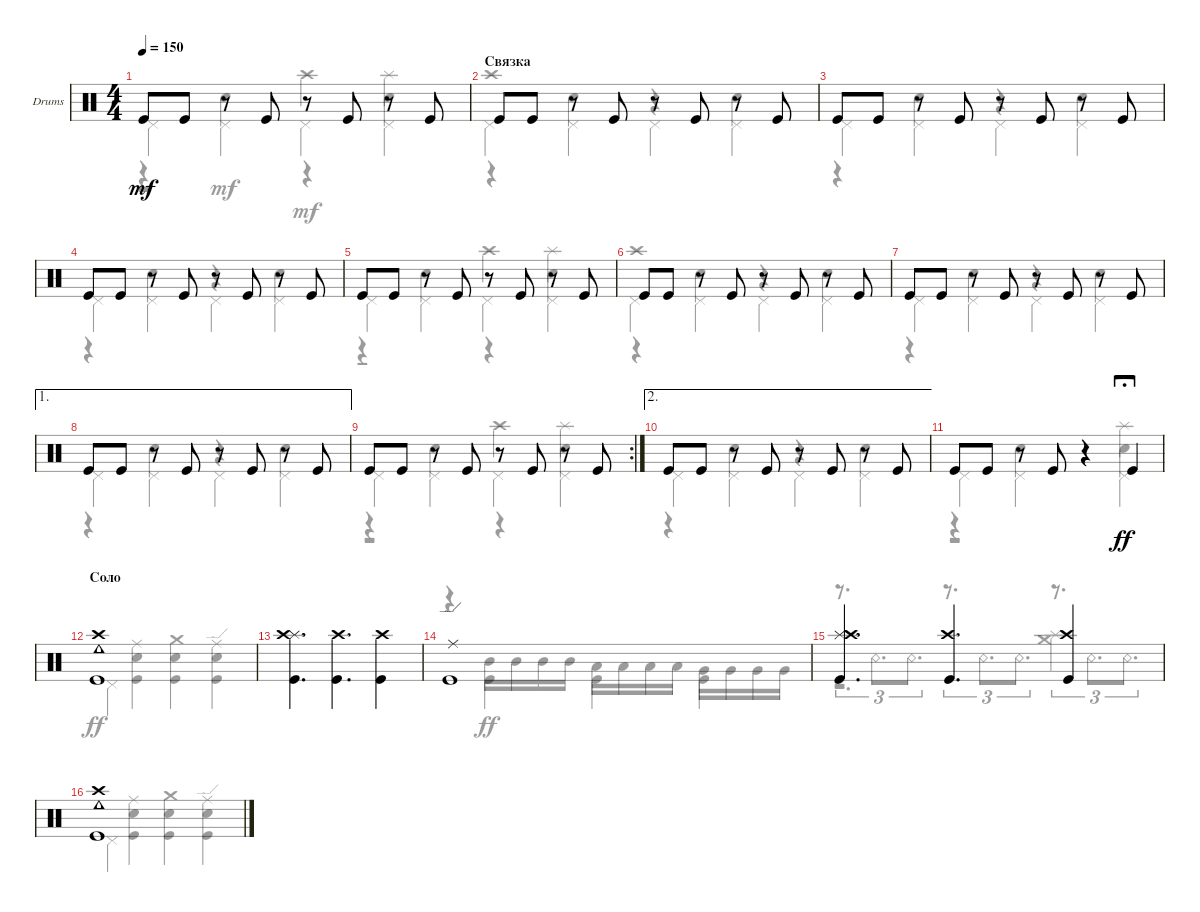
\defaultSystemsLayout 4
\bracketExtendMode groupsimilarinstruments
\firstSystemTrackNameOrientation horizontal
\otherSystemsTrackNameOrientation horizontal
\track ("Drumkit" "Drums") {instrument percussion}
\staff {score}
\articulation defaults
\voice
\ts (4 4)
\tempo 150
\clef neutral
\ks c "Kick (hit)".8{dy mf} "Kick (hit)".8
r.8 "Kick (hit)".8 r.8 "Kick (hit)".8 r.8 "Kick (hit)".8 |
\section ("" "Связка")
"Kick (hit)".8 "Kick (hit)".8 r.8 "Kick (hit)".8 r.8 "Kick (hit)".8 r.8 "Kick (hit)".8 |
"Kick (hit)".8 "Kick (hit)".8 r.8 "Kick (hit)".8 r.8 "Kick (hit)".8 r.8 "Kick (hit)".8 |
"Kick (hit)".8 "Kick (hit)".8 r.8 "Kick (hit)".8 r.8 "Kick (hit)".8 r.8 "Kick (hit)".8 |
"Kick (hit)".8 "Kick (hit)".8 r.8 "Kick (hit)".8 r.8 "Kick (hit)".8 r.8 "Kick (hit)".8 |
"Kick (hit)".8 "Kick (hit)".8 r.8 "Kick (hit)".8 r.8 "Kick (hit)".8 r.8 "Kick (hit)".8 |
"Kick (hit)".8 "Kick (hit)".8 r.8 "Kick (hit)".8 r.8 "Kick (hit)".8 r.8 "Kick (hit)".8 |
\ae 1 "Kick (hit)".8 "Kick (hit)".8
r.8 "Kick (hit)".8 r.8 "Kick (hit)".8 r.8 "Kick (hit)".8 |
\rc 2 "Kick (hit)".8 "Kick (hit)".8
r.8 "Kick (hit)".8 r.8 "Kick (hit)".8 r.8 "Kick (hit)".8 |
\ae 2 "Kick (hit)".8 "Kick (hit)".8
r.8 "Kick (hit)".8 r.8 "Kick (hit)".8 r.8 "Kick (hit)".8 |
"Kick (hit)".8 "Kick (hit)".8 r.8 "Kick (hit)".8 r.4 "Kick (hit)".4{dy ff fermata (long 1)} |
\section ("" "Соло")
("Cowbell low (hit)" "Kick (hit)" "Crash high (hit)").1 |
("Kick (hit)" "Splash (hit)" "Crash high (hit)").4{d} ("Crash high (hit)" "Kick (hit)").4{d} ("Kick (hit)" "Crash high (hit)").4 |
("Ride (edge)" "Kick (hit)").1 |
("Kick (hit)" "Splash (hit)" "Crash high (hit)").4{d} ("Crash high (hit)" "Kick (hit)").4{d} ("Kick (hit)" "Crash high (hit)").4 |
("Cowbell low (hit)" "Kick (hit)" "Crash high (hit)").1
\voice
\clef neutral
\ottava regular
\simile none
\ks c "Pedal Hi-Hat (hit)".4{dy mf} "Pedal Hi-Hat (hit)".4 "Pedal Hi-Hat (hit)".4 "Pedal Hi-Hat (hit)".4
|
"Pedal Hi-Hat (hit)".4 "Pedal Hi-Hat (hit)".4 "Pedal Hi-Hat (hit)".4 "Pedal Hi-Hat (hit)".4 |
"Pedal Hi-Hat (hit)".4 "Pedal Hi-Hat (hit)".4 "Pedal Hi-Hat (hit)".4 "Pedal Hi-Hat (hit)".4 |
"Pedal Hi-Hat (hit)".4 "Pedal Hi-Hat (hit)".4 "Pedal Hi-Hat (hit)".4 "Pedal Hi-Hat (hit)".4 |
"Pedal Hi-Hat (hit)".4 "Pedal Hi-Hat (hit)".4 "Pedal Hi-Hat (hit)".4 "Pedal Hi-Hat (hit)".4 |
"Pedal Hi-Hat (hit)".4 "Pedal Hi-Hat (hit)".4 "Pedal Hi-Hat (hit)".4 "Pedal Hi-Hat (hit)".4 |
"Pedal Hi-Hat (hit)".4 "Pedal Hi-Hat (hit)".4 "Pedal Hi-Hat (hit)".4 "Pedal Hi-Hat (hit)".4 |
"Pedal Hi-Hat (hit)".4 "Pedal Hi-Hat (hit)".4 "Pedal Hi-Hat (hit)".4 "Pedal Hi-Hat (hit)".4 |
"Pedal Hi-Hat (hit)".4 "Pedal Hi-Hat (hit)".4 "Pedal Hi-Hat (hit)".4 "Pedal Hi-Hat (hit)".4 |
"Pedal Hi-Hat (hit)".4 "Pedal Hi-Hat (hit)".4 "Pedal Hi-Hat (hit)".4 "Pedal Hi-Hat (hit)".4 |
"Pedal Hi-Hat (hit)".4 "Pedal Hi-Hat (hit)".4 r.4 "Pedal Hi-Hat (hit)".4{fermata (long 1)} |
"Pedal Hi-Hat (hit)".4{dy ff} ("Kick (hit)" "Ride (middle)" "Snare (hit) 2").4 ("Kick (hit)" "Snare (hit) 2" "Crash medium (hit)").4 ("Kick (hit)" "Snare (hit) 2" "Ride (edge)").4 |
|
r.4 "Mid Tom (hit)".16 "Mid Tom (hit)".16 "Mid Tom (hit)".16 "Mid Tom (hit)".16 "Low Tom (hit)".16 "Low Tom (hit)".16 "Low Tom (hit)".16 "Low Tom (hit)".16 "Very Low Tom (hit)".16 "Very Low Tom (hit)".16 "Very Low Tom (hit)".16 "Very Low Tom (hit)".16 |
r.8{d tu (3 2)} "Snare (rim shot)".8{d tu (3 2)} "Snare (rim shot)".8{d tu (3 2)} r.8{d tu (3 2)} "Snare (rim shot)".8{d tu (3 2)} "Snare (rim shot)".8{d tu (3 2)} r.8{d tu (3 2)} "Snare (rim shot)".8{d tu (3 2)} "Snare (rim shot)".8{d tu (3 2)} |
"Pedal Hi-Hat (hit)".4 ("Kick (hit)" "Ride (middle)" "Snare (hit) 2").4 ("Kick (hit)" "Snare (hit) 2" "Crash medium (hit)").4 ("Kick (hit)" "Snare (hit) 2" "Ride (edge)").4
\voice
\clef neutral
\ottava regular
\simile none
\ks c
r.4{dy mf} "Snare (hit) 2".4 r.4 "Snare (hit) 2".4 |
r.4 "Snare (hit) 2".4 r.4 "Snare (hit) 2".4 |
r.4 "Snare (hit) 2".4 r.4 "Snare (hit) 2".4 |
r.4 "Snare (hit) 2".4 r.4 "Snare (hit) 2".4 |
r.4 "Snare (hit) 2".4 r.4 "Snare (hit) 2".4 |
r.4 "Snare (hit) 2".4 r.4 "Snare (hit) 2".4 |
r.4 "Snare (hit) 2".4 r.4 "Snare (hit) 2".4 |
r.4 "Snare (hit) 2".4 r.4 "Snare (hit) 2".4 |
r.4 "Snare (hit) 2".4 r.4 "Snare (hit) 2".4 |
r.4 "Snare (hit) 2".4 r.4 "Snare (hit) 2".4 |
r.4 "Snare (hit) 2".4 r.4 "Snare (hit) 2".4{fermata (long 1)} |
|
|
r.4 "Kick (hit)".4{dy ff} "Kick (hit)".4 "Kick (hit)".4 |
|
\voice
\clef neutral
\ottava regular
\simile none
\ks c
r.2{dy mf} "Crash high (hit)".4 "Splash (hit)".4 |
"Crash high (hit)".1 |
|
|
r.2 "Crash high (hit)".4 "Splash (hit)".4 |
"Crash high (hit)".1 |
|
|
r.2 "Crash high (hit)".4 "Splash (hit)".4 |
|
r.2 r.4 "Splash (hit)".4{fermata (long 1)} |
|
|
|
r.2{d} ("Crash medium (hit)" "Splash (hit)").4 |
